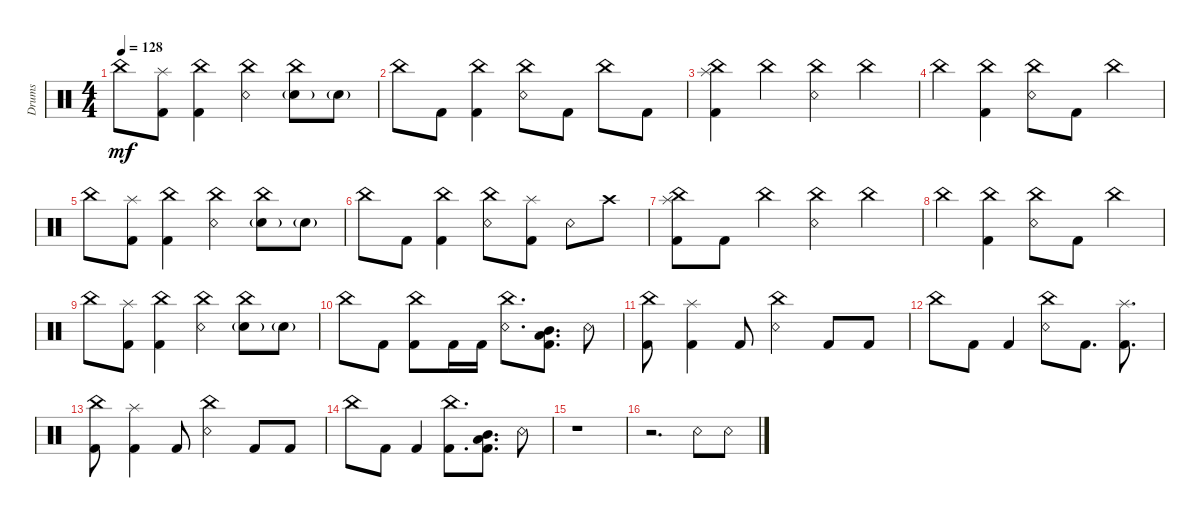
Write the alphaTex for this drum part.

\track ("Drums" "Drums") {instrument percussion}
\staff {score}
\articulation defaults
\ts (4 4)
\tempo 128
\clef neutral
\ks c "China (hit)".8{dy mf}
("Splash (hit)" "Kick (hit) 2").8 ("China (hit)" "Kick (hit) 2").4 ("China (hit)" "Snare (rim shot)").4 ("China (hit)" "Snare (hit) 2"{g}).8 "Snare (hit) 2"{g}.8 |
"China (hit)".8 "Kick (hit) 2".8 ("China (hit)" "Kick (hit) 2").4 ("China (hit)" "Snare (rim shot)").8 "Kick (hit) 2".8 "China (hit)".8 "Kick (hit) 2".8 |
("China (hit)" "Splash (hit)" "Kick (hit) 2").4 "China (hit)".4 ("China (hit)" "Snare (rim shot)").4 "China (hit)".4 |
"China (hit)".4 ("China (hit)" "Kick (hit) 2").4 ("China (hit)" "Snare (rim shot)").8 "Kick (hit) 2".8 "China (hit)".4 |
"China (hit)".8 ("Splash (hit)" "Kick (hit) 2").8 ("China (hit)" "Kick (hit) 2").4 ("China (hit)" "Snare (rim shot)").4 ("China (hit)" "Snare (hit) 2"{g}).8 "Snare (hit) 2"{g}.8 |
"China (hit)".8 "Kick (hit) 2".8 ("China (hit)" "Kick (hit) 2").4 ("China (hit)" "Snare (rim shot)").8 ("Splash (hit)" "Kick (hit) 2").8 "Snare (rim shot)".8 "Crash high (hit)".8 |
("China (hit)" "Splash (hit)" "Kick (hit) 2").8 "Kick (hit) 2".8 "China (hit)".4 ("China (hit)" "Snare (rim shot)").4 "China (hit)".4 |
"China (hit)".4 ("China (hit)" "Kick (hit) 2").4 ("China (hit)" "Snare (rim shot)").8 "Kick (hit) 2".8 "China (hit)".4 |
"China (hit)".8 ("Splash (hit)" "Kick (hit) 2").8 ("China (hit)" "Kick (hit) 2").4 ("China (hit)" "Snare (rim shot)").4 ("China (hit)" "Snare (hit) 2"{g}).8 "Snare (hit) 2"{g}.8 |
"China (hit)".8 "Kick (hit) 2".8 ("China (hit)" "Kick (hit) 2").8 "Kick (hit) 2".16 "Kick (hit) 2".16 ("China (hit)" "Snare (rim shot)").8{d} ("Mid Tom (hit)" "Low Tom (hit)" "Kick (hit) 2").8{d} "Snare (rim shot)".8 |
("China (hit)" "Kick (hit) 2").8 ("Splash (hit)" "Kick (hit) 2").4 "Kick (hit) 2".8 ("China (hit)" "Snare (rim shot)").4 "Kick (hit) 2".8 "Kick (hit) 2".8 |
"China (hit)".8 "Kick (hit) 2".8 "Kick (hit) 2".4 ("China (hit)" "Snare (rim shot)").8 "Kick (hit) 2".8{d} ("Splash (hit)" "Kick (hit) 2").8{d} |
("China (hit)" "Kick (hit) 2").8 ("Splash (hit)" "Kick (hit) 2").4 "Kick (hit) 2".8 ("China (hit)" "Snare (rim shot)").4 "Kick (hit) 2".8 "Kick (hit) 2".8 |
"China (hit)".8 "Kick (hit) 2".8 "Kick (hit) 2".4 ("China (hit)" "Kick (hit) 2").8{d} ("Mid Tom (hit)" "Low Tom (hit)" "Kick (hit) 2").8{d} "Snare (rim shot)".8 |
r.1 |
r.2{d} "Snare (rim shot)".8 "Snare (rim shot)".8
